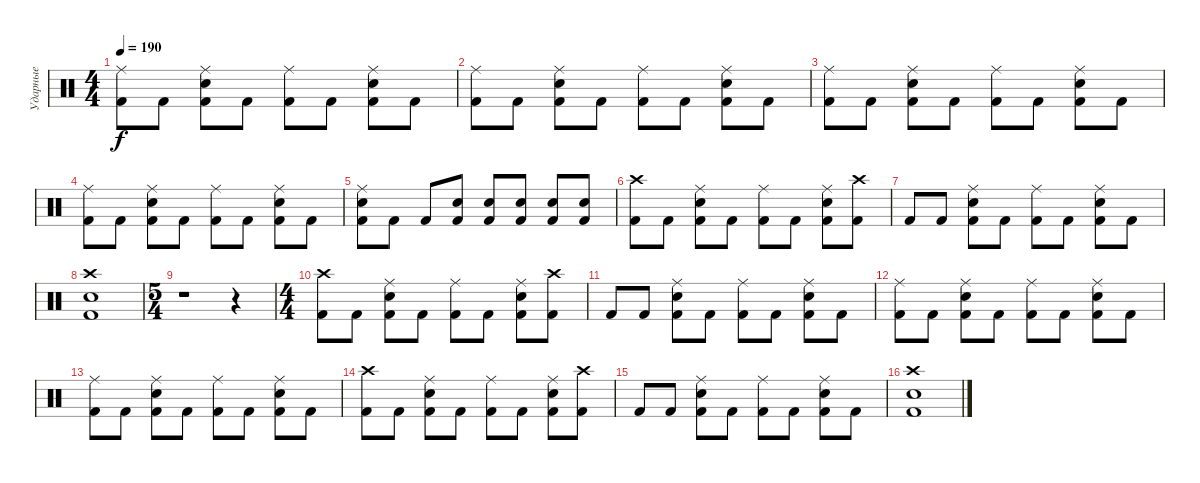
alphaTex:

\track ("Ударные" "Ударные") {instrument percussion}
\staff
\articulation defaults
\ts (4 4)
\tempo 190
\clef neutral
\ks c
("Ride (middle)" "Kick (hit) 2").8{dy f} "Kick (hit) 2".8 ("Ride (middle)" "Snare (hit) 2" "Kick (hit) 2").8 "Kick (hit) 2".8 ("Ride (middle)" "Kick (hit) 2").8 "Kick (hit) 2".8 ("Ride (middle)" "Snare (hit) 2" "Kick (hit) 2").8 "Kick (hit) 2".8 |
("Ride (middle)" "Kick (hit) 2").8 "Kick (hit) 2".8 ("Ride (middle)" "Snare (hit) 2" "Kick (hit) 2").8 "Kick (hit) 2".8 ("Ride (middle)" "Kick (hit) 2").8 "Kick (hit) 2".8 ("Ride (middle)" "Snare (hit) 2" "Kick (hit) 2").8 "Kick (hit) 2".8 |
("Ride (middle)" "Kick (hit) 2").8 "Kick (hit) 2".8 ("Ride (middle)" "Snare (hit) 2" "Kick (hit) 2").8 "Kick (hit) 2".8 ("Ride (middle)" "Kick (hit) 2").8 "Kick (hit) 2".8 ("Ride (middle)" "Snare (hit) 2" "Kick (hit) 2").8 "Kick (hit) 2".8 |
("Ride (middle)" "Kick (hit) 2").8 "Kick (hit) 2".8 ("Ride (middle)" "Snare (hit) 2" "Kick (hit) 2").8 "Kick (hit) 2".8 ("Ride (middle)" "Kick (hit) 2").8 "Kick (hit) 2".8 ("Ride (middle)" "Snare (hit) 2" "Kick (hit) 2").8 "Kick (hit) 2".8 |
("Ride (middle)" "Snare (hit) 2" "Kick (hit) 2").8 "Kick (hit) 2".8 "Kick (hit) 2".8 ("Snare (hit) 2" "Kick (hit) 2").8 ("Snare (hit) 2" "Kick (hit) 2").8 ("Snare (hit) 2" "Kick (hit) 2").8 ("Snare (hit) 2" "Kick (hit) 2").8 ("Snare (hit) 2" "Kick (hit) 2").8 |
("Crash high (hit)" "Kick (hit) 2").8 "Kick (hit) 2".8 ("Ride (middle)" "Snare (hit) 2" "Kick (hit) 2").8 "Kick (hit) 2".8 ("Ride (middle)" "Kick (hit) 2").8 "Kick (hit) 2".8 ("Ride (middle)" "Snare (hit) 2" "Kick (hit) 2").8 ("Crash high (hit)" "Kick (hit) 2").8 |
"Kick (hit) 2".8 "Kick (hit) 2".8 ("Ride (middle)" "Snare (hit) 2" "Kick (hit) 2").8 "Kick (hit) 2".8 ("Ride (middle)" "Kick (hit) 2").8 "Kick (hit) 2".8 ("Ride (middle)" "Snare (hit) 2" "Kick (hit) 2").8 "Kick (hit) 2".8 |
("Kick (hit) 2" "Snare (hit) 2" "Crash high (hit)").1 |
\ts (5 4)
r.1 r.4 |
\ts (4 4)
("Crash high (hit)" "Kick (hit) 2").8 "Kick (hit) 2".8 ("Ride (middle)" "Snare (hit) 2" "Kick (hit) 2").8 "Kick (hit) 2".8 ("Ride (middle)" "Kick (hit) 2").8 "Kick (hit) 2".8 ("Ride (middle)" "Snare (hit) 2" "Kick (hit) 2").8 ("Crash high (hit)" "Kick (hit) 2").8 |
"Kick (hit) 2".8 "Kick (hit) 2".8 ("Ride (middle)" "Snare (hit) 2" "Kick (hit) 2").8 "Kick (hit) 2".8 ("Ride (middle)" "Kick (hit) 2").8 "Kick (hit) 2".8 ("Ride (middle)" "Snare (hit) 2" "Kick (hit) 2").8 "Kick (hit) 2".8 |
("Ride (middle)" "Kick (hit) 2").8 "Kick (hit) 2".8 ("Ride (middle)" "Snare (hit) 2" "Kick (hit) 2").8 "Kick (hit) 2".8 ("Ride (middle)" "Kick (hit) 2").8 "Kick (hit) 2".8 ("Ride (middle)" "Snare (hit) 2" "Kick (hit) 2").8 "Kick (hit) 2".8 |
("Ride (middle)" "Kick (hit) 2").8 "Kick (hit) 2".8 ("Ride (middle)" "Snare (hit) 2" "Kick (hit) 2").8 "Kick (hit) 2".8 ("Ride (middle)" "Kick (hit) 2").8 "Kick (hit) 2".8 ("Ride (middle)" "Snare (hit) 2" "Kick (hit) 2").8 "Kick (hit) 2".8 |
("Crash high (hit)" "Kick (hit) 2").8 "Kick (hit) 2".8 ("Ride (middle)" "Snare (hit) 2" "Kick (hit) 2").8 "Kick (hit) 2".8 ("Ride (middle)" "Kick (hit) 2").8 "Kick (hit) 2".8 ("Ride (middle)" "Snare (hit) 2" "Kick (hit) 2").8 ("Crash high (hit)" "Kick (hit) 2").8 |
"Kick (hit) 2".8 "Kick (hit) 2".8 ("Ride (middle)" "Snare (hit) 2" "Kick (hit) 2").8 "Kick (hit) 2".8 ("Ride (middle)" "Kick (hit) 2").8 "Kick (hit) 2".8 ("Ride (middle)" "Snare (hit) 2" "Kick (hit) 2").8 "Kick (hit) 2".8 |
("Kick (hit) 2" "Snare (hit) 2" "Crash high (hit)").1
